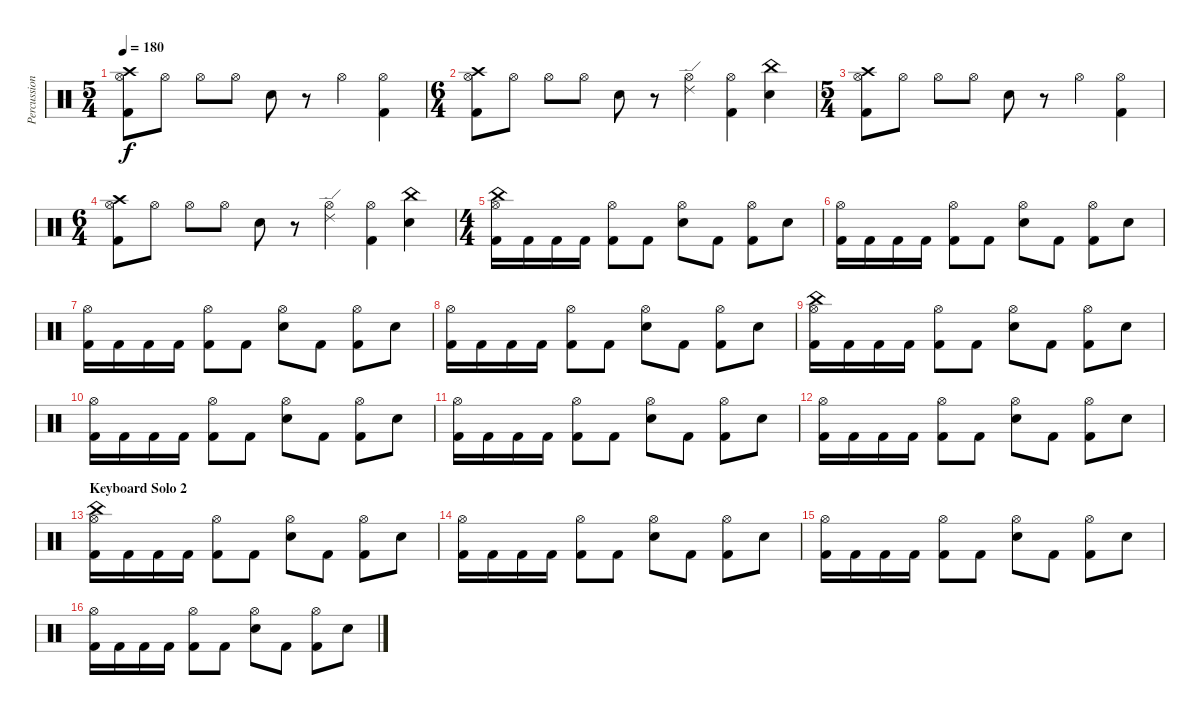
\track ("Percussions" "Percussion") {instrument percussion}
\staff {score}
\articulation defaults
\ts (5 4)
\tempo 180
\clef neutral
\ks c
("Crash high (hit)" "Hi-Hat (open)" "Kick (hit) 2").8{dy f} "Hi-Hat (open)".8 "Hi-Hat (open)".8 "Hi-Hat (open)".8 "Electric Snare (hit)".8 r.8 "Hi-Hat (open)".4 ("Hi-Hat (open)" "Kick (hit) 2").4 |
\ts (6 4)
("Crash high (hit)" "Hi-Hat (open)" "Kick (hit) 2").8 "Hi-Hat (open)".8 "Hi-Hat (open)".8 "Hi-Hat (open)".8 "Electric Snare (hit)".8 r.8 ("Ride (edge) 2" "Hi-Hat (open)").4 ("Hi-Hat (open)" "Kick (hit) 2").4 ("China (hit)" "Electric Snare (hit)").4 |
\ts (5 4)
("Crash high (hit)" "Hi-Hat (open)" "Kick (hit) 2").8 "Hi-Hat (open)".8 "Hi-Hat (open)".8 "Hi-Hat (open)".8 "Electric Snare (hit)".8 r.8 "Hi-Hat (open)".4 ("Hi-Hat (open)" "Kick (hit) 2").4 |
\ts (6 4)
("Crash high (hit)" "Hi-Hat (open)" "Kick (hit) 2").8 "Hi-Hat (open)".8 "Hi-Hat (open)".8 "Hi-Hat (open)".8 "Electric Snare (hit)".8 r.8 ("Ride (edge) 2" "Hi-Hat (open)").4 ("Hi-Hat (open)" "Kick (hit) 2").4 ("China (hit)" "Electric Snare (hit)").4 |
\ts (4 4)
("China (hit)" "Hi-Hat (open)" "Kick (hit) 2").16 "Kick (hit) 2".16 "Kick (hit) 2".16 "Kick (hit) 2".16 ("Hi-Hat (open)" "Kick (hit) 2").8 "Kick (hit) 2".8 ("Hi-Hat (open)" "Electric Snare (hit)").8 "Kick (hit) 2".8 ("Hi-Hat (open)" "Kick (hit) 2").8 "Electric Snare (hit)".8 |
("Hi-Hat (open)" "Kick (hit) 2").16 "Kick (hit) 2".16 "Kick (hit) 2".16 "Kick (hit) 2".16 ("Hi-Hat (open)" "Kick (hit) 2").8 "Kick (hit) 2".8 ("Hi-Hat (open)" "Electric Snare (hit)").8 "Kick (hit) 2".8 ("Hi-Hat (open)" "Kick (hit) 2").8 "Electric Snare (hit)".8 |
("Hi-Hat (open)" "Kick (hit) 2").16 "Kick (hit) 2".16 "Kick (hit) 2".16 "Kick (hit) 2".16 ("Hi-Hat (open)" "Kick (hit) 2").8 "Kick (hit) 2".8 ("Hi-Hat (open)" "Electric Snare (hit)").8 "Kick (hit) 2".8 ("Hi-Hat (open)" "Kick (hit) 2").8 "Electric Snare (hit)".8 |
("Hi-Hat (open)" "Kick (hit) 2").16 "Kick (hit) 2".16 "Kick (hit) 2".16 "Kick (hit) 2".16 ("Hi-Hat (open)" "Kick (hit) 2").8 "Kick (hit) 2".8 ("Hi-Hat (open)" "Electric Snare (hit)").8 "Kick (hit) 2".8 ("Hi-Hat (open)" "Kick (hit) 2").8 "Electric Snare (hit)".8 |
("China (hit)" "Hi-Hat (open)" "Kick (hit) 2").16 "Kick (hit) 2".16 "Kick (hit) 2".16 "Kick (hit) 2".16 ("Hi-Hat (open)" "Kick (hit) 2").8 "Kick (hit) 2".8 ("Hi-Hat (open)" "Electric Snare (hit)").8 "Kick (hit) 2".8 ("Hi-Hat (open)" "Kick (hit) 2").8 "Electric Snare (hit)".8 |
("Hi-Hat (open)" "Kick (hit) 2").16 "Kick (hit) 2".16 "Kick (hit) 2".16 "Kick (hit) 2".16 ("Hi-Hat (open)" "Kick (hit) 2").8 "Kick (hit) 2".8 ("Hi-Hat (open)" "Electric Snare (hit)").8 "Kick (hit) 2".8 ("Hi-Hat (open)" "Kick (hit) 2").8 "Electric Snare (hit)".8 |
("Hi-Hat (open)" "Kick (hit) 2").16 "Kick (hit) 2".16 "Kick (hit) 2".16 "Kick (hit) 2".16 ("Hi-Hat (open)" "Kick (hit) 2").8 "Kick (hit) 2".8 ("Hi-Hat (open)" "Electric Snare (hit)").8 "Kick (hit) 2".8 ("Hi-Hat (open)" "Kick (hit) 2").8 "Electric Snare (hit)".8 |
("Hi-Hat (open)" "Kick (hit) 2").16 "Kick (hit) 2".16 "Kick (hit) 2".16 "Kick (hit) 2".16 ("Hi-Hat (open)" "Kick (hit) 2").8 "Kick (hit) 2".8 ("Hi-Hat (open)" "Electric Snare (hit)").8 "Kick (hit) 2".8 ("Hi-Hat (open)" "Kick (hit) 2").8 "Electric Snare (hit)".8 |
\section ("" "Keyboard Solo 2")
("China (hit)" "Hi-Hat (open)" "Kick (hit) 2").16 "Kick (hit) 2".16 "Kick (hit) 2".16 "Kick (hit) 2".16 ("Hi-Hat (open)" "Kick (hit) 2").8 "Kick (hit) 2".8 ("Hi-Hat (open)" "Electric Snare (hit)").8 "Kick (hit) 2".8 ("Hi-Hat (open)" "Kick (hit) 2").8 "Electric Snare (hit)".8 |
("Hi-Hat (open)" "Kick (hit) 2").16 "Kick (hit) 2".16 "Kick (hit) 2".16 "Kick (hit) 2".16 ("Hi-Hat (open)" "Kick (hit) 2").8 "Kick (hit) 2".8 ("Hi-Hat (open)" "Electric Snare (hit)").8 "Kick (hit) 2".8 ("Hi-Hat (open)" "Kick (hit) 2").8 "Electric Snare (hit)".8 |
("Hi-Hat (open)" "Kick (hit) 2").16 "Kick (hit) 2".16 "Kick (hit) 2".16 "Kick (hit) 2".16 ("Hi-Hat (open)" "Kick (hit) 2").8 "Kick (hit) 2".8 ("Hi-Hat (open)" "Electric Snare (hit)").8 "Kick (hit) 2".8 ("Hi-Hat (open)" "Kick (hit) 2").8 "Electric Snare (hit)".8 |
("Hi-Hat (open)" "Kick (hit) 2").16 "Kick (hit) 2".16 "Kick (hit) 2".16 "Kick (hit) 2".16 ("Hi-Hat (open)" "Kick (hit) 2").8 "Kick (hit) 2".8 ("Hi-Hat (open)" "Electric Snare (hit)").8 "Kick (hit) 2".8 ("Hi-Hat (open)" "Kick (hit) 2").8 "Electric Snare (hit)".8
